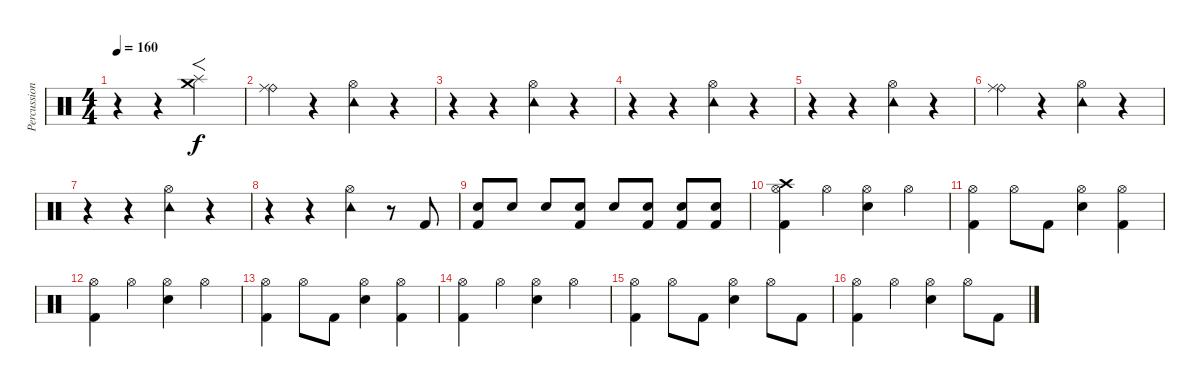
\track ("Percussion" "Percussion") {instrument percussion}
\staff {score}
\articulation defaults
\ts (4 4)
\tempo 160
\clef neutral
\ks c
r.4{dy f} r.4 ("Splash (hit)" "Crash medium (hit)").2{f} |
("Ride (bell)" "Ride (middle)").4 r.4 ("Tambourine (hit)" "Hi-Hat (open)").4 r.4 |
r.4 r.4 ("Tambourine (hit)" "Hi-Hat (open)").4 r.4 |
r.4 r.4 ("Tambourine (hit)" "Hi-Hat (open)").4 r.4 |
r.4 r.4 ("Tambourine (hit)" "Hi-Hat (open)").4 r.4 |
("Ride (bell)" "Ride (middle)").4 r.4 ("Tambourine (hit)" "Hi-Hat (open)").4 r.4 |
r.4 r.4 ("Tambourine (hit)" "Hi-Hat (open)").4 r.4 |
r.4 r.4 ("Tambourine (hit)" "Hi-Hat (open)").4 r.8 "Kick (hit) 2".8 |
("Electric Snare (hit)" "Kick (hit) 2").8 "Electric Snare (hit)".8 "Electric Snare (hit)".8 ("Electric Snare (hit)" "Kick (hit) 2").8 "Electric Snare (hit)".8 ("Electric Snare (hit)" "Kick (hit) 2").8 ("Electric Snare (hit)" "Kick (hit) 2").8 ("Electric Snare (hit)" "Kick (hit) 2").8 |
("Crash high (hit)" "Hi-Hat (open)" "Kick (hit) 2").4 "Hi-Hat (open)".4 ("Hi-Hat (open)" "Electric Snare (hit)").4 "Hi-Hat (open)".4 |
("Hi-Hat (open)" "Kick (hit) 2").4 "Hi-Hat (open)".8 "Kick (hit) 2".8 ("Hi-Hat (open)" "Electric Snare (hit)").4 ("Hi-Hat (open)" "Kick (hit) 2").4 |
("Hi-Hat (open)" "Kick (hit) 2").4 "Hi-Hat (open)".4 ("Hi-Hat (open)" "Electric Snare (hit)").4 "Hi-Hat (open)".4 |
("Hi-Hat (open)" "Kick (hit) 2").4 "Hi-Hat (open)".8 "Kick (hit) 2".8 ("Hi-Hat (open)" "Electric Snare (hit)").4 ("Hi-Hat (open)" "Kick (hit) 2").4 |
("Hi-Hat (open)" "Kick (hit) 2").4 "Hi-Hat (open)".4 ("Hi-Hat (open)" "Electric Snare (hit)").4 "Hi-Hat (open)".4 |
("Hi-Hat (open)" "Kick (hit) 2").4 "Hi-Hat (open)".8 "Kick (hit) 2".8 ("Hi-Hat (open)" "Electric Snare (hit)").4 "Hi-Hat (open)".8 "Kick (hit) 2".8 |
("Hi-Hat (open)" "Kick (hit) 2").4 "Hi-Hat (open)".4 ("Hi-Hat (open)" "Electric Snare (hit)").4 "Hi-Hat (open)".8 "Kick (hit) 2".8
